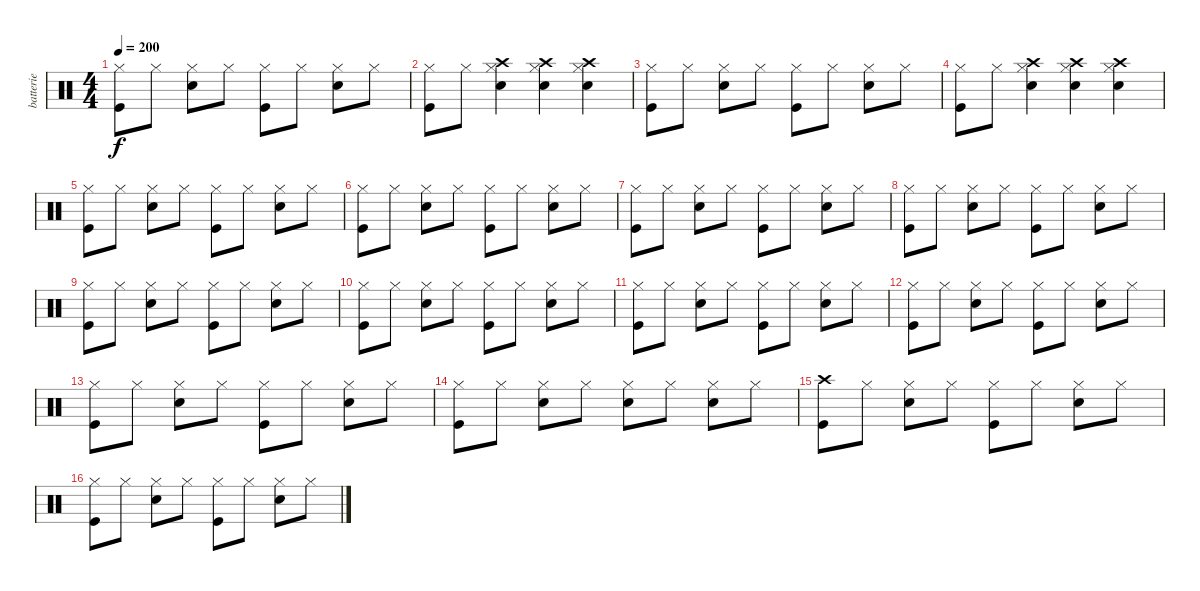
\track ("batterie" "batterie") {instrument percussion}
\staff {score}
\articulation defaults
\ts (4 4)
\tempo 200
\clef neutral
\ks c
("Hi-Hat (closed)" "Kick (hit)").8{dy f} "Hi-Hat (closed)".8 ("Hi-Hat (closed)" "Electric Snare (hit)").8 "Hi-Hat (closed)".8 ("Hi-Hat (closed)" "Kick (hit)").8 "Hi-Hat (closed)".8 ("Hi-Hat (closed)" "Electric Snare (hit)").8 "Hi-Hat (closed)".8 |
("Hi-Hat (closed)" "Kick (hit)").8 "Hi-Hat (closed)".8 ("Hi-Hat (closed)" "Electric Snare (hit)" "Crash high (hit)").4 ("Hi-Hat (closed)" "Electric Snare (hit)" "Crash high (hit)").4 ("Hi-Hat (closed)" "Electric Snare (hit)" "Crash high (hit)").4 |
("Hi-Hat (closed)" "Kick (hit)").8 "Hi-Hat (closed)".8 ("Hi-Hat (closed)" "Electric Snare (hit)").8 "Hi-Hat (closed)".8 ("Hi-Hat (closed)" "Kick (hit)").8 "Hi-Hat (closed)".8 ("Hi-Hat (closed)" "Electric Snare (hit)").8 "Hi-Hat (closed)".8 |
("Hi-Hat (closed)" "Kick (hit)").8 "Hi-Hat (closed)".8 ("Hi-Hat (closed)" "Electric Snare (hit)" "Crash high (hit)").4 ("Hi-Hat (closed)" "Electric Snare (hit)" "Crash high (hit)").4 ("Hi-Hat (closed)" "Electric Snare (hit)" "Crash high (hit)").4 |
("Hi-Hat (closed)" "Kick (hit)").8 "Hi-Hat (closed)".8 ("Hi-Hat (closed)" "Electric Snare (hit)").8 "Hi-Hat (closed)".8 ("Hi-Hat (closed)" "Kick (hit)").8 "Hi-Hat (closed)".8 ("Hi-Hat (closed)" "Electric Snare (hit)").8 "Hi-Hat (closed)".8 |
("Hi-Hat (closed)" "Kick (hit)").8 "Hi-Hat (closed)".8 ("Hi-Hat (closed)" "Electric Snare (hit)").8 "Hi-Hat (closed)".8 ("Hi-Hat (closed)" "Kick (hit)").8 "Hi-Hat (closed)".8 ("Hi-Hat (closed)" "Electric Snare (hit)").8 "Hi-Hat (closed)".8 |
("Hi-Hat (closed)" "Kick (hit)").8 "Hi-Hat (closed)".8 ("Hi-Hat (closed)" "Electric Snare (hit)").8 "Hi-Hat (closed)".8 ("Hi-Hat (closed)" "Kick (hit)").8 "Hi-Hat (closed)".8 ("Hi-Hat (closed)" "Electric Snare (hit)").8 "Hi-Hat (closed)".8 |
("Hi-Hat (closed)" "Kick (hit)").8 "Hi-Hat (closed)".8 ("Hi-Hat (closed)" "Electric Snare (hit)").8 "Hi-Hat (closed)".8 ("Hi-Hat (closed)" "Kick (hit)").8 "Hi-Hat (closed)".8 ("Hi-Hat (closed)" "Electric Snare (hit)").8 "Hi-Hat (closed)".8 |
("Hi-Hat (closed)" "Kick (hit)").8 "Hi-Hat (closed)".8 ("Hi-Hat (closed)" "Electric Snare (hit)").8 "Hi-Hat (closed)".8 ("Hi-Hat (closed)" "Kick (hit)").8 "Hi-Hat (closed)".8 ("Hi-Hat (closed)" "Electric Snare (hit)").8 "Hi-Hat (closed)".8 |
("Hi-Hat (closed)" "Kick (hit)").8 "Hi-Hat (closed)".8 ("Hi-Hat (closed)" "Electric Snare (hit)").8 "Hi-Hat (closed)".8 ("Hi-Hat (closed)" "Kick (hit)").8 "Hi-Hat (closed)".8 ("Hi-Hat (closed)" "Electric Snare (hit)").8 "Hi-Hat (closed)".8 |
("Hi-Hat (closed)" "Kick (hit)").8 "Hi-Hat (closed)".8 ("Hi-Hat (closed)" "Electric Snare (hit)").8 "Hi-Hat (closed)".8 ("Hi-Hat (closed)" "Kick (hit)").8 "Hi-Hat (closed)".8 ("Hi-Hat (closed)" "Electric Snare (hit)").8 "Hi-Hat (closed)".8 |
("Hi-Hat (closed)" "Kick (hit)").8 "Hi-Hat (closed)".8 ("Hi-Hat (closed)" "Electric Snare (hit)").8 "Hi-Hat (closed)".8 ("Hi-Hat (closed)" "Kick (hit)").8 "Hi-Hat (closed)".8 ("Hi-Hat (closed)" "Electric Snare (hit)").8 "Hi-Hat (closed)".8 |
("Hi-Hat (closed)" "Kick (hit)").8 "Hi-Hat (closed)".8 ("Hi-Hat (closed)" "Electric Snare (hit)").8 "Hi-Hat (closed)".8 ("Hi-Hat (closed)" "Kick (hit)").8 "Hi-Hat (closed)".8 ("Hi-Hat (closed)" "Electric Snare (hit)").8 "Hi-Hat (closed)".8 |
("Hi-Hat (closed)" "Kick (hit)").8 "Hi-Hat (closed)".8 ("Hi-Hat (closed)" "Electric Snare (hit)").8 "Hi-Hat (closed)".8 ("Hi-Hat (closed)" "Electric Snare (hit)").8 "Hi-Hat (closed)".8 ("Hi-Hat (closed)" "Electric Snare (hit)").8 "Hi-Hat (closed)".8 |
("Crash high (hit)" "Kick (hit)").8 "Hi-Hat (closed)".8 ("Hi-Hat (closed)" "Electric Snare (hit)").8 "Hi-Hat (closed)".8 ("Hi-Hat (closed)" "Kick (hit)").8 "Hi-Hat (closed)".8 ("Hi-Hat (closed)" "Electric Snare (hit)").8 "Hi-Hat (closed)".8 |
("Hi-Hat (closed)" "Kick (hit)").8 "Hi-Hat (closed)".8 ("Hi-Hat (closed)" "Electric Snare (hit)").8 "Hi-Hat (closed)".8 ("Hi-Hat (closed)" "Kick (hit)").8 "Hi-Hat (closed)".8 ("Hi-Hat (closed)" "Electric Snare (hit)").8 "Hi-Hat (closed)".8
